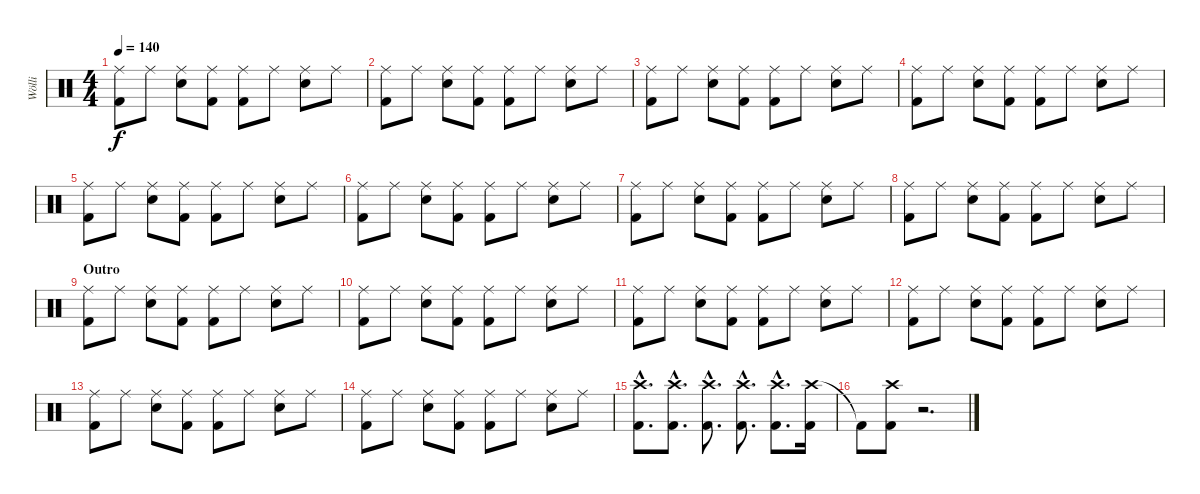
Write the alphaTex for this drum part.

\track ("Wölli" "Wölli") {instrument percussion}
\staff {score}
\articulation defaults
\ts (4 4)
\tempo 140
\clef neutral
\ks c
("Ride (middle)" "Kick (hit) 2").8{dy f} "Ride (middle)".8 ("Ride (middle)" "Snare (hit) 2").8 ("Ride (middle)" "Kick (hit) 2").8 ("Ride (middle)" "Kick (hit) 2").8 "Ride (middle)".8 ("Ride (middle)" "Snare (hit) 2").8 "Ride (middle)".8 |
("Ride (middle)" "Kick (hit) 2").8 "Ride (middle)".8 ("Ride (middle)" "Snare (hit) 2").8 ("Ride (middle)" "Kick (hit) 2").8 ("Ride (middle)" "Kick (hit) 2").8 "Ride (middle)".8 ("Ride (middle)" "Snare (hit) 2").8 "Ride (middle)".8 |
("Ride (middle)" "Kick (hit) 2").8 "Ride (middle)".8 ("Ride (middle)" "Snare (hit) 2").8 ("Ride (middle)" "Kick (hit) 2").8 ("Ride (middle)" "Kick (hit) 2").8 "Ride (middle)".8 ("Ride (middle)" "Snare (hit) 2").8 "Ride (middle)".8 |
("Ride (middle)" "Kick (hit) 2").8 "Ride (middle)".8 ("Ride (middle)" "Snare (hit) 2").8 ("Ride (middle)" "Kick (hit) 2").8 ("Ride (middle)" "Kick (hit) 2").8 "Ride (middle)".8 ("Ride (middle)" "Snare (hit) 2").8 "Ride (middle)".8 |
("Ride (middle)" "Kick (hit) 2").8 "Ride (middle)".8 ("Ride (middle)" "Snare (hit) 2").8 ("Ride (middle)" "Kick (hit) 2").8 ("Ride (middle)" "Kick (hit) 2").8 "Ride (middle)".8 ("Ride (middle)" "Snare (hit) 2").8 "Ride (middle)".8 |
("Ride (middle)" "Kick (hit) 2").8 "Ride (middle)".8 ("Ride (middle)" "Snare (hit) 2").8 ("Ride (middle)" "Kick (hit) 2").8 ("Ride (middle)" "Kick (hit) 2").8 "Ride (middle)".8 ("Ride (middle)" "Snare (hit) 2").8 "Ride (middle)".8 |
("Ride (middle)" "Kick (hit) 2").8 "Ride (middle)".8 ("Ride (middle)" "Snare (hit) 2").8 ("Ride (middle)" "Kick (hit) 2").8 ("Ride (middle)" "Kick (hit) 2").8 "Ride (middle)".8 ("Ride (middle)" "Snare (hit) 2").8 "Ride (middle)".8 |
("Ride (middle)" "Kick (hit) 2").8 "Ride (middle)".8 ("Ride (middle)" "Snare (hit) 2").8 ("Ride (middle)" "Kick (hit) 2").8 ("Ride (middle)" "Kick (hit) 2").8 "Ride (middle)".8 ("Ride (middle)" "Snare (hit) 2").8 "Ride (middle)".8 |
\section ("" "Outro")
("Ride (middle)" "Kick (hit) 2").8 "Ride (middle)".8 ("Ride (middle)" "Snare (hit) 2").8 ("Ride (middle)" "Kick (hit) 2").8 ("Ride (middle)" "Kick (hit) 2").8 "Ride (middle)".8 ("Ride (middle)" "Snare (hit) 2").8 "Ride (middle)".8 |
("Ride (middle)" "Kick (hit) 2").8 "Ride (middle)".8 ("Ride (middle)" "Snare (hit) 2").8 ("Ride (middle)" "Kick (hit) 2").8 ("Ride (middle)" "Kick (hit) 2").8 "Ride (middle)".8 ("Ride (middle)" "Snare (hit) 2").8 "Ride (middle)".8 |
("Ride (middle)" "Kick (hit) 2").8 "Ride (middle)".8 ("Ride (middle)" "Snare (hit) 2").8 ("Ride (middle)" "Kick (hit) 2").8 ("Ride (middle)" "Kick (hit) 2").8 "Ride (middle)".8 ("Ride (middle)" "Snare (hit) 2").8 "Ride (middle)".8 |
("Ride (middle)" "Kick (hit) 2").8 "Ride (middle)".8 ("Ride (middle)" "Snare (hit) 2").8 ("Ride (middle)" "Kick (hit) 2").8 ("Ride (middle)" "Kick (hit) 2").8 "Ride (middle)".8 ("Ride (middle)" "Snare (hit) 2").8 "Ride (middle)".8 |
("Ride (middle)" "Kick (hit) 2").8 "Ride (middle)".8 ("Ride (middle)" "Snare (hit) 2").8 ("Ride (middle)" "Kick (hit) 2").8 ("Ride (middle)" "Kick (hit) 2").8 "Ride (middle)".8 ("Ride (middle)" "Snare (hit) 2").8 "Ride (middle)".8 |
("Ride (middle)" "Kick (hit) 2").8 "Ride (middle)".8 ("Ride (middle)" "Snare (hit) 2").8 ("Ride (middle)" "Kick (hit) 2").8 ("Ride (middle)" "Kick (hit) 2").8 "Ride (middle)".8 ("Ride (middle)" "Snare (hit) 2").8 "Ride (middle)".8 |
("Crash high (hit)"{hac} "Kick (hit) 2"{hac}).8{d} ("Crash high (hit)"{hac} "Kick (hit) 2"{hac}).8{d} ("Crash high (hit)"{hac} "Kick (hit) 2").8{d} ("Crash high (hit)"{hac} "Kick (hit) 2"{hac}).8{d} ("Crash high (hit)"{hac} "Kick (hit) 2"{hac}).8{d} ("Crash high (hit)" "Kick (hit) 2").16 |
"Kick (hit) 2"{t}.8 ("Crash high (hit)" "Kick (hit) 2").8 r.2{d}
